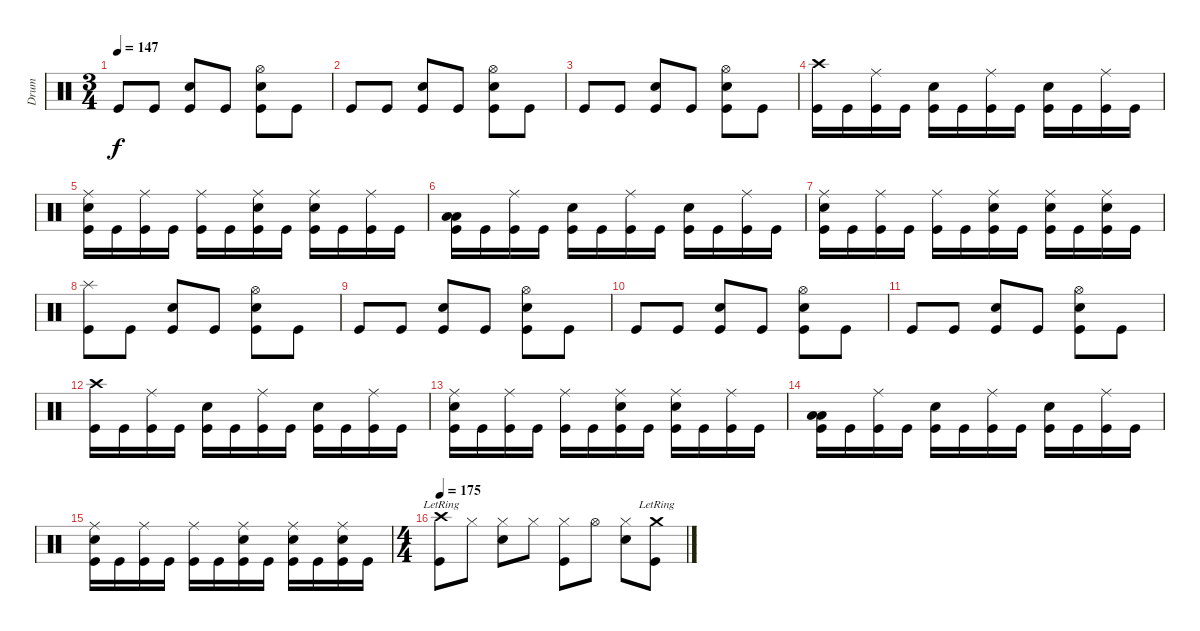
\track ("Drum" "Drum") {instrument percussion}
\staff {score}
\articulation defaults
\ts (3 4)
\tempo 147
\clef neutral
\ks c "Kick (hit)".8{dy f} "Kick (hit)".8
("Snare (hit) 2" "Kick (hit)").8 "Kick (hit)".8 ("Hi-Hat (open)" "Snare (hit) 2" "Kick (hit)").8 "Kick (hit)".8 |
"Kick (hit)".8 "Kick (hit)".8 ("Snare (hit) 2" "Kick (hit)").8 "Kick (hit)".8 ("Hi-Hat (open)" "Snare (hit) 2" "Kick (hit)").8 "Kick (hit)".8 |
"Kick (hit)".8 "Kick (hit)".8 ("Snare (hit) 2" "Kick (hit)").8 "Kick (hit)".8 ("Hi-Hat (open)" "Snare (hit) 2" "Kick (hit)").8 "Kick (hit)".8 |
("Crash high (hit)" "Kick (hit)").16 "Kick (hit)".16 ("Ride (middle)" "Kick (hit)").16 "Kick (hit)".16 ("Snare (hit) 2" "Kick (hit)").16 "Kick (hit)".16 ("Ride (middle)" "Kick (hit)").16 "Kick (hit)".16 ("Snare (hit) 2" "Kick (hit)").16 "Kick (hit)".16 ("Ride (middle)" "Kick (hit)").16 "Kick (hit)".16 |
("Ride (middle)" "Snare (hit) 2" "Kick (hit)").16 "Kick (hit)".16 ("Ride (middle)" "Kick (hit)").16 "Kick (hit)".16 ("Ride (middle)" "Kick (hit)").16 "Kick (hit)".16 ("Ride (middle)" "Snare (hit) 2" "Kick (hit)").16 "Kick (hit)".16 ("Ride (middle)" "Snare (hit) 2" "Kick (hit)").16 "Kick (hit)".16 ("Ride (middle)" "Kick (hit)").16 "Kick (hit)".16 |
("Low Floor Tom (hit)" "Low Floor Tom (hit)" "Kick (hit)").16 "Kick (hit)".16 ("Ride (middle)" "Kick (hit)").16 "Kick (hit)".16 ("Snare (hit) 2" "Kick (hit)").16 "Kick (hit)".16 ("Ride (middle)" "Kick (hit)").16 "Kick (hit)".16 ("Snare (hit) 2" "Kick (hit)").16 "Kick (hit)".16 ("Ride (middle)" "Kick (hit)").16 "Kick (hit)".16 |
("Ride (middle)" "Snare (hit) 2" "Kick (hit)").16 "Kick (hit)".16 ("Ride (middle)" "Kick (hit)").16 "Kick (hit)".16 ("Ride (middle)" "Kick (hit)").16 "Kick (hit)".16 ("Ride (middle)" "Snare (hit) 2" "Kick (hit)").16 "Kick (hit)".16 ("Ride (middle)" "Snare (hit) 2" "Kick (hit)").16 "Kick (hit)".16 ("Ride (middle)" "Snare (hit) 2" "Kick (hit)").16 "Kick (hit)".16 |
("Splash (hit)" "Kick (hit)").8 "Kick (hit)".8 ("Snare (hit) 2" "Kick (hit)").8 "Kick (hit)".8 ("Hi-Hat (open)" "Snare (hit) 2" "Kick (hit)").8 "Kick (hit)".8 |
"Kick (hit)".8 "Kick (hit)".8 ("Snare (hit) 2" "Kick (hit)").8 "Kick (hit)".8 ("Hi-Hat (open)" "Snare (hit) 2" "Kick (hit)").8 "Kick (hit)".8 |
"Kick (hit)".8 "Kick (hit)".8 ("Snare (hit) 2" "Kick (hit)").8 "Kick (hit)".8 ("Hi-Hat (open)" "Snare (hit) 2" "Kick (hit)").8 "Kick (hit)".8 |
"Kick (hit)".8 "Kick (hit)".8 ("Snare (hit) 2" "Kick (hit)").8 "Kick (hit)".8 ("Hi-Hat (open)" "Snare (hit) 2" "Kick (hit)").8 "Kick (hit)".8 |
("Crash high (hit)" "Kick (hit)").16 "Kick (hit)".16 ("Ride (middle)" "Kick (hit)").16 "Kick (hit)".16 ("Snare (hit) 2" "Kick (hit)").16 "Kick (hit)".16 ("Ride (middle)" "Kick (hit)").16 "Kick (hit)".16 ("Snare (hit) 2" "Kick (hit)").16 "Kick (hit)".16 ("Ride (middle)" "Kick (hit)").16 "Kick (hit)".16 |
("Ride (middle)" "Snare (hit) 2" "Kick (hit)").16 "Kick (hit)".16 ("Ride (middle)" "Kick (hit)").16 "Kick (hit)".16 ("Ride (middle)" "Kick (hit)").16 "Kick (hit)".16 ("Ride (middle)" "Snare (hit) 2" "Kick (hit)").16 "Kick (hit)".16 ("Ride (middle)" "Snare (hit) 2" "Kick (hit)").16 "Kick (hit)".16 ("Ride (middle)" "Kick (hit)").16 "Kick (hit)".16 |
("Low Floor Tom (hit)" "Low Floor Tom (hit)" "Kick (hit)").16 "Kick (hit)".16 ("Ride (middle)" "Kick (hit)").16 "Kick (hit)".16 ("Snare (hit) 2" "Kick (hit)").16 "Kick (hit)".16 ("Ride (middle)" "Kick (hit)").16 "Kick (hit)".16 ("Snare (hit) 2" "Kick (hit)").16 "Kick (hit)".16 ("Ride (middle)" "Kick (hit)").16 "Kick (hit)".16 |
("Ride (middle)" "Snare (hit) 2" "Kick (hit)").16 "Kick (hit)".16 ("Ride (middle)" "Kick (hit)").16 "Kick (hit)".16 ("Ride (middle)" "Kick (hit)").16 "Kick (hit)".16 ("Ride (middle)" "Snare (hit) 2" "Kick (hit)").16 "Kick (hit)".16 ("Ride (middle)" "Snare (hit) 2" "Kick (hit)").16 "Kick (hit)".16 ("Ride (middle)" "Snare (hit) 2" "Kick (hit)").16 "Kick (hit)".16 |
\ts (4 4)
\tempo 175
("Crash high (hit)"{lr} "Kick (hit)").8 "Hi-Hat (closed)".8 ("Hi-Hat (closed)" "Snare (hit) 2").8 "Hi-Hat (closed)".8 ("Hi-Hat (closed)" "Kick (hit)").8 "Hi-Hat (open)".8 ("Hi-Hat (closed)" "Snare (hit) 2").8 ("Crash medium (hit)"{lr} "Kick (hit)").8
